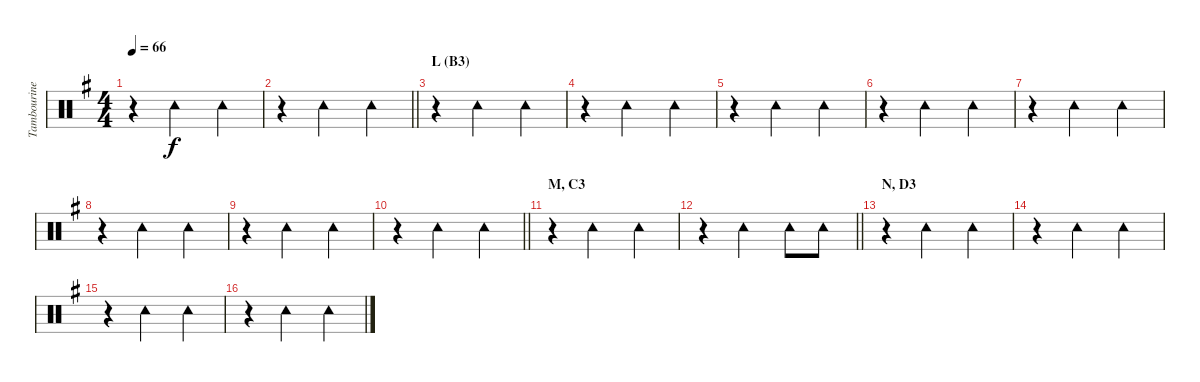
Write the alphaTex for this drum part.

\track ("Tambourine: Ray Copoper" "Tambourine") {instrument percussion}
\staff {score}
\articulation defaults
\ts (4 4)
\tempo 66
\clef neutral
\ks g
r.4{dy f} "Tambourine (hit)".2 "Tambourine (hit)".4 |
\barLineRight lightlight
r.4 "Tambourine (hit)".2 "Tambourine (hit)".4 |
\section ("" "L (B3)")
r.4 "Tambourine (hit)".2 "Tambourine (hit)".4 |
r.4 "Tambourine (hit)".2 "Tambourine (hit)".4 |
r.4 "Tambourine (hit)".2 "Tambourine (hit)".4 |
r.4 "Tambourine (hit)".2 "Tambourine (hit)".4 |
r.4 "Tambourine (hit)".2 "Tambourine (hit)".4 |
r.4 "Tambourine (hit)".2 "Tambourine (hit)".4 |
r.4 "Tambourine (hit)".2 "Tambourine (hit)".4 |
\barLineRight lightlight
r.4 "Tambourine (hit)".2 "Tambourine (hit)".4 |
\section ("" "M, C3")
r.4 "Tambourine (hit)".2 "Tambourine (hit)".4 |
\barLineRight lightlight
r.4 "Tambourine (hit)".2{beam merge} "Tambourine (hit)".8{beam merge} "Tambourine (hit)".8 |
\section ("" "N, D3")
r.4 "Tambourine (hit)".2 "Tambourine (hit)".4 |
r.4 "Tambourine (hit)".2 "Tambourine (hit)".4 |
r.4 "Tambourine (hit)".2 "Tambourine (hit)".4 |
r.4 "Tambourine (hit)".2 "Tambourine (hit)".4
